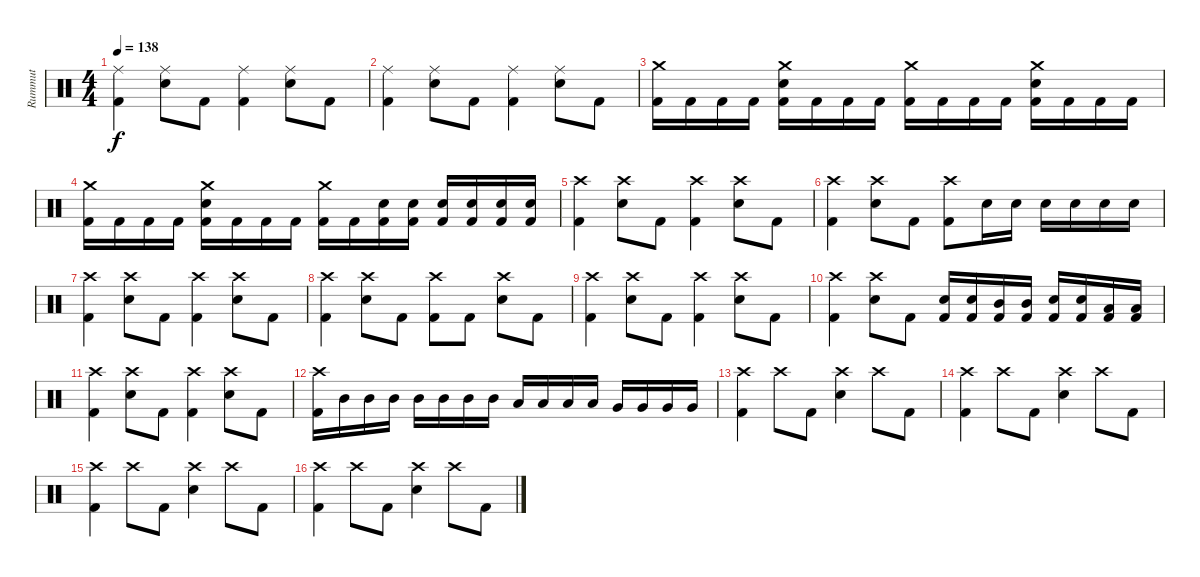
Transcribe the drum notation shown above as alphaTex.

\track ("Rummut" "Rummut") {instrument percussion}
\staff {score}
\articulation defaults
\ts (4 4)
\tempo 138
\clef neutral
\ks c
("Ride (middle)" "Kick (hit) 2").4{dy f} ("Ride (middle)" "Snare (hit) 2").8 "Kick (hit) 2".8 ("Ride (middle)" "Kick (hit) 2").4 ("Ride (middle)" "Snare (hit) 2").8 "Kick (hit) 2".8 |
("Ride (middle)" "Kick (hit) 2").4 ("Ride (middle)" "Snare (hit) 2").8 "Kick (hit) 2".8 ("Ride (middle)" "Kick (hit) 2").4 ("Ride (middle)" "Snare (hit) 2").8 "Kick (hit) 2".8 |
("Crash medium (hit)" "Kick (hit) 2").16 "Kick (hit) 2".16 "Kick (hit) 2".16 "Kick (hit) 2".16 ("Crash medium (hit)" "Snare (hit) 2" "Kick (hit) 2").16 "Kick (hit) 2".16 "Kick (hit) 2".16 "Kick (hit) 2".16 ("Crash medium (hit)" "Kick (hit) 2").16 "Kick (hit) 2".16 "Kick (hit) 2".16 "Kick (hit) 2".16 ("Crash medium (hit)" "Snare (hit) 2" "Kick (hit) 2").16 "Kick (hit) 2".16 "Kick (hit) 2".16 "Kick (hit) 2".16 |
("Crash medium (hit)" "Kick (hit) 2").16 "Kick (hit) 2".16 "Kick (hit) 2".16 "Kick (hit) 2".16 ("Crash medium (hit)" "Snare (hit) 2" "Kick (hit) 2").16 "Kick (hit) 2".16 "Kick (hit) 2".16 "Kick (hit) 2".16 ("Crash medium (hit)" "Kick (hit) 2").16 "Kick (hit) 2".16 ("Snare (hit) 2" "Kick (hit) 2").16 ("Snare (hit) 2" "Kick (hit) 2").16 ("Snare (hit) 2" "Kick (hit) 2").16 ("Snare (hit) 2" "Kick (hit) 2").16 ("Snare (hit) 2" "Kick (hit) 2").16 ("Snare (hit) 2" "Kick (hit) 2").16 |
("Crash high (hit)" "Kick (hit) 2").4 ("Crash high (hit)" "Snare (hit) 2").8 "Kick (hit) 2".8 ("Crash high (hit)" "Kick (hit) 2").4 ("Crash high (hit)" "Snare (hit) 2").8 "Kick (hit) 2".8 |
("Crash high (hit)" "Kick (hit) 2").4 ("Crash high (hit)" "Snare (hit) 2").8 "Kick (hit) 2".8 ("Crash high (hit)" "Kick (hit) 2").8 "Snare (hit) 2".16 "Snare (hit) 2".16 "Snare (hit) 2".16 "Snare (hit) 2".16 "Snare (hit) 2".16 "Snare (hit) 2".16 |
("Crash high (hit)" "Kick (hit) 2").4 ("Crash high (hit)" "Snare (hit) 2").8 "Kick (hit) 2".8 ("Crash high (hit)" "Kick (hit) 2").4 ("Crash high (hit)" "Snare (hit) 2").8 "Kick (hit) 2".8 |
("Crash high (hit)" "Kick (hit) 2").4 ("Crash high (hit)" "Snare (hit) 2").8 "Kick (hit) 2".8 ("Crash high (hit)" "Kick (hit) 2").8 "Kick (hit) 2".8 ("Crash high (hit)" "Snare (hit) 2").8 "Kick (hit) 2".8 |
("Crash high (hit)" "Kick (hit) 2").4 ("Crash high (hit)" "Snare (hit) 2").8 "Kick (hit) 2".8 ("Crash high (hit)" "Kick (hit) 2").4 ("Crash high (hit)" "Snare (hit) 2").8 "Kick (hit) 2".8 |
("Crash high (hit)" "Kick (hit) 2").4 ("Crash high (hit)" "Snare (hit) 2").8 "Kick (hit) 2".8 ("Snare (hit) 2" "Kick (hit) 2").16 ("Snare (hit) 2" "Kick (hit) 2").16 ("Mid Tom (hit)" "Kick (hit) 2").16 ("Mid Tom (hit)" "Kick (hit) 2").16 ("Snare (hit) 2" "Kick (hit) 2").16 ("Snare (hit) 2" "Kick (hit) 2").16 ("Low Tom (hit)" "Kick (hit) 2").16 ("Low Tom (hit)" "Kick (hit) 2").16 |
("Crash high (hit)" "Kick (hit) 2").4 ("Crash high (hit)" "Snare (hit) 2").8 "Kick (hit) 2".8 ("Crash high (hit)" "Kick (hit) 2").4 ("Crash high (hit)" "Snare (hit) 2").8 "Kick (hit) 2".8 |
("Crash high (hit)" "Kick (hit) 2").16 "Mid Tom (hit)".16 "Mid Tom (hit)".16 "Mid Tom (hit)".16 "Mid Tom (hit)".16 "Mid Tom (hit)".16 "Mid Tom (hit)".16 "Mid Tom (hit)".16 "Low Tom (hit)".16 "Low Tom (hit)".16 "Low Tom (hit)".16 "Low Tom (hit)".16 "Very Low Tom (hit)".16 "Very Low Tom (hit)".16 "Very Low Tom (hit)".16 "Very Low Tom (hit)".16 |
("Crash high (hit)" "Kick (hit) 2").4 "Crash high (hit)".8 "Kick (hit) 2".8 ("Crash high (hit)" "Snare (hit) 2").4 "Crash high (hit)".8 "Kick (hit) 2".8 |
("Crash high (hit)" "Kick (hit) 2").4 "Crash high (hit)".8 "Kick (hit) 2".8 ("Crash high (hit)" "Snare (hit) 2").4 "Crash high (hit)".8 "Kick (hit) 2".8 |
("Crash high (hit)" "Kick (hit) 2").4 "Crash high (hit)".8 "Kick (hit) 2".8 ("Crash high (hit)" "Snare (hit) 2").4 "Crash high (hit)".8 "Kick (hit) 2".8 |
("Crash high (hit)" "Kick (hit) 2").4 "Crash high (hit)".8 "Kick (hit) 2".8 ("Crash high (hit)" "Snare (hit) 2").4 "Crash high (hit)".8 "Kick (hit) 2".8
